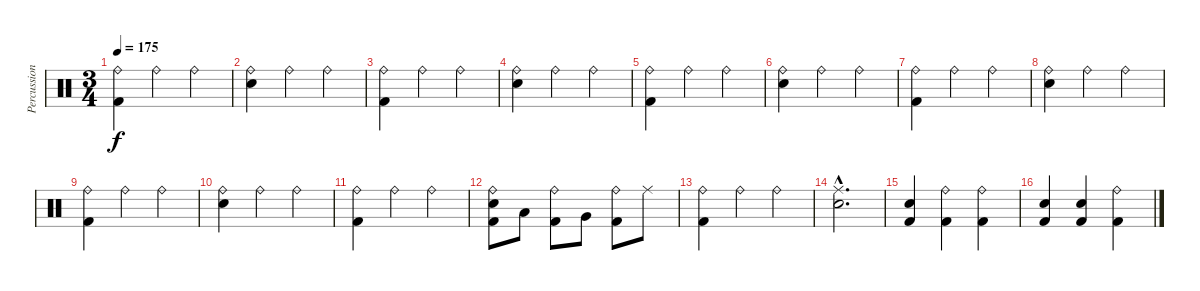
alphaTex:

\track ("Percussion" "Percussion") {instrument percussion}
\staff {score}
\articulation defaults
\ts (3 4)
\tempo 175
\clef neutral
\ks c
("Ride (bell)" "Kick (hit) 2").4{dy f} "Ride (bell)".4 "Ride (bell)".4 |
("Ride (bell)" "Electric Snare (hit)").4 "Ride (bell)".4 "Ride (bell)".4 |
("Ride (bell)" "Kick (hit) 2").4 "Ride (bell)".4 "Ride (bell)".4 |
("Ride (bell)" "Electric Snare (hit)").4 "Ride (bell)".4 "Ride (bell)".4 |
("Ride (bell)" "Kick (hit) 2").4 "Ride (bell)".4 "Ride (bell)".4 |
("Ride (bell)" "Electric Snare (hit)").4 "Ride (bell)".4 "Ride (bell)".4 |
("Ride (bell)" "Kick (hit) 2").4 "Ride (bell)".4 "Ride (bell)".4 |
("Ride (bell)" "Electric Snare (hit)").4 "Ride (bell)".4 "Ride (bell)".4 |
("Ride (bell)" "Kick (hit) 2").4 "Ride (bell)".4 "Ride (bell)".4 |
("Ride (bell)" "Electric Snare (hit)").4 "Ride (bell)".4 "Ride (bell)".4 |
("Ride (bell)" "Kick (hit) 2").4 "Ride (bell)".4 "Ride (bell)".4 |
("Ride (bell)" "Electric Snare (hit)" "Kick (hit) 2").8 "Low Floor Tom (hit)".8 ("Ride (bell)" "Kick (hit) 2").8 "Very Low Tom (hit)".8 ("Ride (bell)" "Kick (hit) 2").8 "Ride (middle)".8 |
("Ride (bell)" "Kick (hit) 2").4 "Ride (bell)".4 "Ride (bell)".4 |
("Ride (middle)"{hac} "Electric Snare (hit)"{hac}).2{d} |
("Electric Snare (hit)" "Kick (hit) 2").4 ("Ride (bell)" "Kick (hit) 2").4 ("Ride (bell)" "Kick (hit) 2").4 |
("Electric Snare (hit)" "Kick (hit) 2").4 ("Electric Snare (hit)" "Kick (hit) 2").4 ("Ride (bell)" "Kick (hit) 2").4
